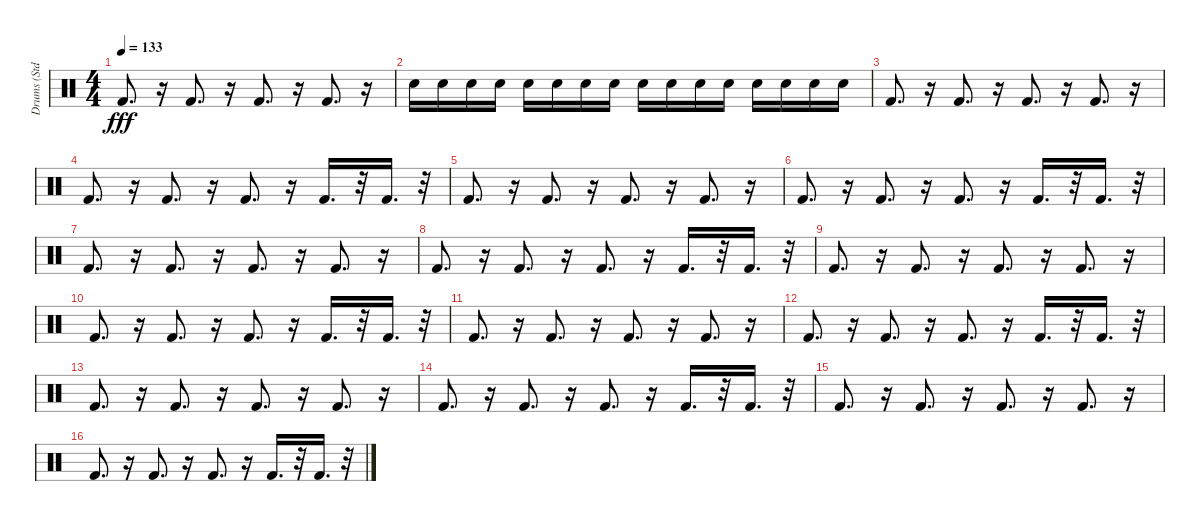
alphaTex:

\track ("Drums (Std.)" "Drums (Std") {instrument percussion}
\staff {score}
\articulation defaults
\ts (4 4)
\tempo 133
\clef neutral
\ks c "Kick (hit) 2".8{d dy fff}
r.16 "Kick (hit) 2".8{d} r.16 "Kick (hit) 2".8{d} r.16 "Kick (hit) 2".8{d} r.16 |
"Snare (hit) 2".16 "Snare (hit) 2".16 "Snare (hit) 2".16 "Snare (hit) 2".16 "Snare (hit) 2".16 "Snare (hit) 2".16 "Snare (hit) 2".16 "Snare (hit) 2".16 "Snare (hit) 2".16 "Snare (hit) 2".16 "Snare (hit) 2".16 "Snare (hit) 2".16 "Snare (hit) 2".16 "Snare (hit) 2".16 "Snare (hit) 2".16 "Snare (hit) 2".16 |
"Kick (hit) 2".8{d} r.16 "Kick (hit) 2".8{d} r.16 "Kick (hit) 2".8{d} r.16 "Kick (hit) 2".8{d} r.16 |
"Kick (hit) 2".8{d} r.16 "Kick (hit) 2".8{d} r.16 "Kick (hit) 2".8{d} r.16 "Kick (hit) 2".16{d} r.32 "Kick (hit) 2".16{d} r.32 |
"Kick (hit) 2".8{d} r.16 "Kick (hit) 2".8{d} r.16 "Kick (hit) 2".8{d} r.16 "Kick (hit) 2".8{d} r.16 |
"Kick (hit) 2".8{d} r.16 "Kick (hit) 2".8{d} r.16 "Kick (hit) 2".8{d} r.16 "Kick (hit) 2".16{d} r.32 "Kick (hit) 2".16{d} r.32 |
"Kick (hit) 2".8{d} r.16 "Kick (hit) 2".8{d} r.16 "Kick (hit) 2".8{d} r.16 "Kick (hit) 2".8{d} r.16 |
"Kick (hit) 2".8{d} r.16 "Kick (hit) 2".8{d} r.16 "Kick (hit) 2".8{d} r.16 "Kick (hit) 2".16{d} r.32 "Kick (hit) 2".16{d} r.32 |
"Kick (hit) 2".8{d} r.16 "Kick (hit) 2".8{d} r.16 "Kick (hit) 2".8{d} r.16 "Kick (hit) 2".8{d} r.16 |
"Kick (hit) 2".8{d} r.16 "Kick (hit) 2".8{d} r.16 "Kick (hit) 2".8{d} r.16 "Kick (hit) 2".16{d} r.32 "Kick (hit) 2".16{d} r.32 |
"Kick (hit) 2".8{d} r.16 "Kick (hit) 2".8{d} r.16 "Kick (hit) 2".8{d} r.16 "Kick (hit) 2".8{d} r.16 |
"Kick (hit) 2".8{d} r.16 "Kick (hit) 2".8{d} r.16 "Kick (hit) 2".8{d} r.16 "Kick (hit) 2".16{d} r.32 "Kick (hit) 2".16{d} r.32 |
"Kick (hit) 2".8{d} r.16 "Kick (hit) 2".8{d} r.16 "Kick (hit) 2".8{d} r.16 "Kick (hit) 2".8{d} r.16 |
"Kick (hit) 2".8{d} r.16 "Kick (hit) 2".8{d} r.16 "Kick (hit) 2".8{d} r.16 "Kick (hit) 2".16{d} r.32 "Kick (hit) 2".16{d} r.32 |
"Kick (hit) 2".8{d} r.16 "Kick (hit) 2".8{d} r.16 "Kick (hit) 2".8{d} r.16 "Kick (hit) 2".8{d} r.16 |
"Kick (hit) 2".8{d} r.16 "Kick (hit) 2".8{d} r.16 "Kick (hit) 2".8{d} r.16 "Kick (hit) 2".16{d} r.32 "Kick (hit) 2".16{d} r.32
